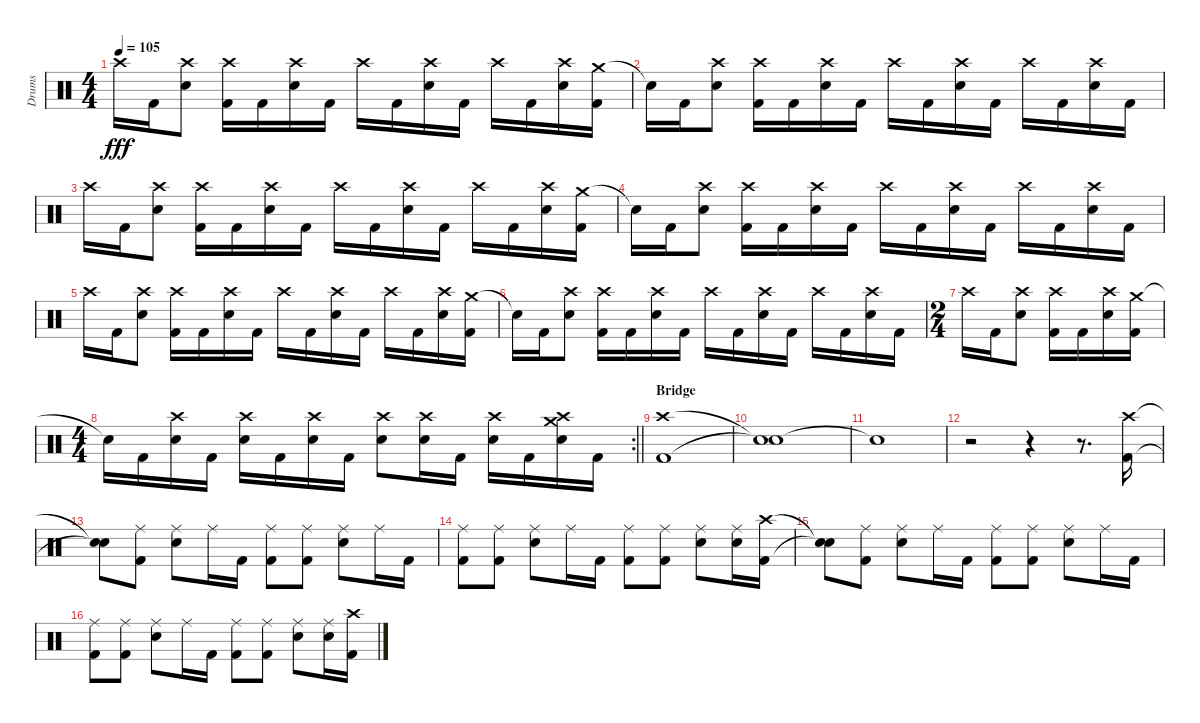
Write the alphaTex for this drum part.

\track ("Drums" "Drums") {instrument percussion}
\staff {score}
\articulation defaults
\ts (4 4)
\tempo 105
\clef neutral
\ks c "Crash high (hit)".16{dy fff} "Kick (hit) 2".16
("Crash high (hit)" "Electric Snare (hit)").8 ("Crash high (hit)" "Kick (hit) 2").16 "Kick (hit) 2".16 ("Crash high (hit)" "Electric Snare (hit)").16 "Kick (hit) 2".16 "Crash high (hit)".16 "Kick (hit) 2".16 ("Crash high (hit)" "Electric Snare (hit)").16 "Kick (hit) 2".16 "Crash high (hit)".16 "Kick (hit) 2".16 ("Crash high (hit)" "Electric Snare (hit)").16 ("Crash medium (hit)" "Kick (hit) 2").16 |
"Snare (hit)"{t}.16 "Kick (hit) 2".16 ("Crash high (hit)" "Electric Snare (hit)").8 ("Crash high (hit)" "Kick (hit) 2").16 "Kick (hit) 2".16 ("Crash high (hit)" "Electric Snare (hit)").16 "Kick (hit) 2".16 "Crash high (hit)".16 "Kick (hit) 2".16 ("Crash high (hit)" "Electric Snare (hit)").16 "Kick (hit) 2".16 "Crash high (hit)".16 "Kick (hit) 2".16 ("Crash high (hit)" "Electric Snare (hit)").16 "Kick (hit) 2".16 |
"Crash high (hit)".16 "Kick (hit) 2".16 ("Crash high (hit)" "Electric Snare (hit)").8 ("Crash high (hit)" "Kick (hit) 2").16 "Kick (hit) 2".16 ("Crash high (hit)" "Electric Snare (hit)").16 "Kick (hit) 2".16 "Crash high (hit)".16 "Kick (hit) 2".16 ("Crash high (hit)" "Electric Snare (hit)").16 "Kick (hit) 2".16 "Crash high (hit)".16 "Kick (hit) 2".16 ("Crash high (hit)" "Electric Snare (hit)").16 ("Crash medium (hit)" "Kick (hit) 2").16 |
"Snare (hit)"{t}.16 "Kick (hit) 2".16 ("Crash high (hit)" "Electric Snare (hit)").8 ("Crash high (hit)" "Kick (hit) 2").16 "Kick (hit) 2".16 ("Crash high (hit)" "Electric Snare (hit)").16 "Kick (hit) 2".16 "Crash high (hit)".16 "Kick (hit) 2".16 ("Crash high (hit)" "Electric Snare (hit)").16 "Kick (hit) 2".16 "Crash high (hit)".16 "Kick (hit) 2".16 ("Crash high (hit)" "Electric Snare (hit)").16 "Kick (hit) 2".16 |
"Crash high (hit)".16 "Kick (hit) 2".16 ("Crash high (hit)" "Electric Snare (hit)").8 ("Crash high (hit)" "Kick (hit) 2").16 "Kick (hit) 2".16 ("Crash high (hit)" "Electric Snare (hit)").16 "Kick (hit) 2".16 "Crash high (hit)".16 "Kick (hit) 2".16 ("Crash high (hit)" "Electric Snare (hit)").16 "Kick (hit) 2".16 "Crash high (hit)".16 "Kick (hit) 2".16 ("Crash high (hit)" "Electric Snare (hit)").16 ("Crash medium (hit)" "Kick (hit) 2").16 |
"Snare (hit)"{t}.16 "Kick (hit) 2".16 ("Crash high (hit)" "Electric Snare (hit)").8 ("Crash high (hit)" "Kick (hit) 2").16 "Kick (hit) 2".16 ("Crash high (hit)" "Electric Snare (hit)").16 "Kick (hit) 2".16 "Crash high (hit)".16 "Kick (hit) 2".16 ("Crash high (hit)" "Electric Snare (hit)").16 "Kick (hit) 2".16 "Crash high (hit)".16 "Kick (hit) 2".16 ("Crash high (hit)" "Electric Snare (hit)").16 "Kick (hit) 2".16 |
\ts (2 4)
"Crash high (hit)".16 "Kick (hit) 2".16 ("Crash high (hit)" "Electric Snare (hit)").8 ("Crash high (hit)" "Kick (hit) 2").16 "Kick (hit) 2".16 ("Crash high (hit)" "Electric Snare (hit)").16 ("Crash medium (hit)" "Kick (hit) 2").16 |
\rc 2
\ts (4 4)
\barLineRight lightlight "Snare (hit)"{t}.16 "Kick (hit) 2".16
("Crash high (hit)" "Electric Snare (hit)").16 "Kick (hit) 2".16 ("Crash high (hit)" "Electric Snare (hit)").16 "Kick (hit) 2".16 ("Crash high (hit)" "Electric Snare (hit)").16 "Kick (hit) 2".16 ("Crash high (hit)" "Electric Snare (hit)").8 ("Crash high (hit)" "Electric Snare (hit)").16 "Kick (hit) 2".16 ("Crash high (hit)" "Electric Snare (hit)").16 "Kick (hit) 2".16 ("Crash medium (hit)" "Crash high (hit)" "Electric Snare (hit)").16 "Kick (hit) 2".16 |
\section ("" "Bridge")
("Crash high (hit)" "Kick (hit) 2").1 |
("Snare (hit)"{t} "Snare (hit)"{t}).1 |
"Snare (hit)"{t}.1 |
r.2 r.4 r.8{d} ("Crash high (hit)" "Kick (hit) 2").16 |
("Snare (hit)"{t} "Snare (hit)"{t}).8 ("Ride (middle)" "Kick (hit) 2").8 ("Ride (middle)" "Electric Snare (hit)").8 "Ride (middle)".16 "Kick (hit) 2".16 ("Ride (middle)" "Kick (hit) 2").8 ("Ride (middle)" "Kick (hit) 2").8 ("Ride (middle)" "Electric Snare (hit)").8 "Ride (middle)".16 "Kick (hit) 2".16 |
("Ride (middle)" "Kick (hit) 2").8 ("Ride (middle)" "Kick (hit) 2").8 ("Ride (middle)" "Electric Snare (hit)").8 "Ride (middle)".16 "Kick (hit) 2".16 ("Ride (middle)" "Kick (hit) 2").8 ("Ride (middle)" "Kick (hit) 2").8 ("Ride (middle)" "Electric Snare (hit)").8 ("Ride (middle)" "Electric Snare (hit)").16 ("Crash high (hit)" "Kick (hit) 2").16 |
("Snare (hit)"{t} "Snare (hit)"{t}).8 ("Ride (middle)" "Kick (hit) 2").8 ("Ride (middle)" "Electric Snare (hit)").8 "Ride (middle)".16 "Kick (hit) 2".16 ("Ride (middle)" "Kick (hit) 2").8 ("Ride (middle)" "Kick (hit) 2").8 ("Ride (middle)" "Electric Snare (hit)").8 "Ride (middle)".16 "Kick (hit) 2".16 |
("Ride (middle)" "Kick (hit) 2").8 ("Ride (middle)" "Kick (hit) 2").8 ("Ride (middle)" "Electric Snare (hit)").8 "Ride (middle)".16 "Kick (hit) 2".16 ("Ride (middle)" "Kick (hit) 2").8 ("Ride (middle)" "Kick (hit) 2").8 ("Ride (middle)" "Electric Snare (hit)").8 ("Ride (middle)" "Electric Snare (hit)").16 ("Crash high (hit)" "Kick (hit) 2").16
